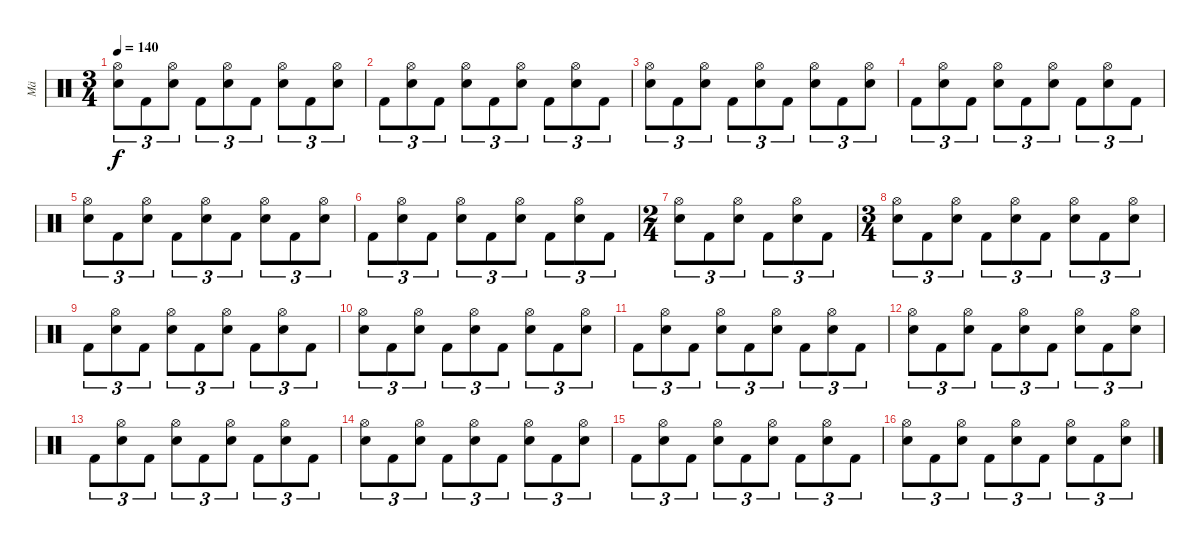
\track ("Mä" "Mä") {instrument percussion}
\staff {score}
\articulation defaults
\ts (3 4)
\tempo 140
\clef neutral
\ks c
("Hi-Hat (open)" "Snare (hit) 2").8{tu (3 2) dy f} "Kick (hit) 2".8{tu (3 2)} ("Hi-Hat (open)" "Snare (hit) 2").8{tu (3 2)} "Kick (hit) 2".8{tu (3 2)} ("Hi-Hat (open)" "Snare (hit) 2").8{tu (3 2)} "Kick (hit) 2".8{tu (3 2)} ("Hi-Hat (open)" "Snare (hit) 2").8{tu (3 2)} "Kick (hit) 2".8{tu (3 2)} ("Hi-Hat (open)" "Snare (hit) 2").8{tu (3 2)} |
"Kick (hit) 2".8{tu (3 2)} ("Hi-Hat (open)" "Snare (hit) 2").8{tu (3 2)} "Kick (hit) 2".8{tu (3 2)} ("Hi-Hat (open)" "Snare (hit) 2").8{tu (3 2)} "Kick (hit) 2".8{tu (3 2)} ("Hi-Hat (open)" "Snare (hit) 2").8{tu (3 2)} "Kick (hit) 2".8{tu (3 2)} ("Hi-Hat (open)" "Snare (hit) 2").8{tu (3 2)} "Kick (hit) 2".8{tu (3 2)} |
("Hi-Hat (open)" "Snare (hit) 2").8{tu (3 2)} "Kick (hit) 2".8{tu (3 2)} ("Hi-Hat (open)" "Snare (hit) 2").8{tu (3 2)} "Kick (hit) 2".8{tu (3 2)} ("Hi-Hat (open)" "Snare (hit) 2").8{tu (3 2)} "Kick (hit) 2".8{tu (3 2)} ("Hi-Hat (open)" "Snare (hit) 2").8{tu (3 2)} "Kick (hit) 2".8{tu (3 2)} ("Hi-Hat (open)" "Snare (hit) 2").8{tu (3 2)} |
"Kick (hit) 2".8{tu (3 2)} ("Hi-Hat (open)" "Snare (hit) 2").8{tu (3 2)} "Kick (hit) 2".8{tu (3 2)} ("Hi-Hat (open)" "Snare (hit) 2").8{tu (3 2)} "Kick (hit) 2".8{tu (3 2)} ("Hi-Hat (open)" "Snare (hit) 2").8{tu (3 2)} "Kick (hit) 2".8{tu (3 2)} ("Hi-Hat (open)" "Snare (hit) 2").8{tu (3 2)} "Kick (hit) 2".8{tu (3 2)} |
("Hi-Hat (open)" "Snare (hit) 2").8{tu (3 2)} "Kick (hit) 2".8{tu (3 2)} ("Hi-Hat (open)" "Snare (hit) 2").8{tu (3 2)} "Kick (hit) 2".8{tu (3 2)} ("Hi-Hat (open)" "Snare (hit) 2").8{tu (3 2)} "Kick (hit) 2".8{tu (3 2)} ("Hi-Hat (open)" "Snare (hit) 2").8{tu (3 2)} "Kick (hit) 2".8{tu (3 2)} ("Hi-Hat (open)" "Snare (hit) 2").8{tu (3 2)} |
"Kick (hit) 2".8{tu (3 2)} ("Hi-Hat (open)" "Snare (hit) 2").8{tu (3 2)} "Kick (hit) 2".8{tu (3 2)} ("Hi-Hat (open)" "Snare (hit) 2").8{tu (3 2)} "Kick (hit) 2".8{tu (3 2)} ("Hi-Hat (open)" "Snare (hit) 2").8{tu (3 2)} "Kick (hit) 2".8{tu (3 2)} ("Hi-Hat (open)" "Snare (hit) 2").8{tu (3 2)} "Kick (hit) 2".8{tu (3 2)} |
\ts (2 4)
("Hi-Hat (open)" "Snare (hit) 2").8{tu (3 2)} "Kick (hit) 2".8{tu (3 2)} ("Hi-Hat (open)" "Snare (hit) 2").8{tu (3 2)} "Kick (hit) 2".8{tu (3 2)} ("Hi-Hat (open)" "Snare (hit) 2").8{tu (3 2)} "Kick (hit) 2".8{tu (3 2)} |
\ts (3 4)
("Hi-Hat (open)" "Snare (hit) 2").8{tu (3 2)} "Kick (hit) 2".8{tu (3 2)} ("Hi-Hat (open)" "Snare (hit) 2").8{tu (3 2)} "Kick (hit) 2".8{tu (3 2)} ("Hi-Hat (open)" "Snare (hit) 2").8{tu (3 2)} "Kick (hit) 2".8{tu (3 2)} ("Hi-Hat (open)" "Snare (hit) 2").8{tu (3 2)} "Kick (hit) 2".8{tu (3 2)} ("Hi-Hat (open)" "Snare (hit) 2").8{tu (3 2)} |
"Kick (hit) 2".8{tu (3 2)} ("Hi-Hat (open)" "Snare (hit) 2").8{tu (3 2)} "Kick (hit) 2".8{tu (3 2)} ("Hi-Hat (open)" "Snare (hit) 2").8{tu (3 2)} "Kick (hit) 2".8{tu (3 2)} ("Hi-Hat (open)" "Snare (hit) 2").8{tu (3 2)} "Kick (hit) 2".8{tu (3 2)} ("Hi-Hat (open)" "Snare (hit) 2").8{tu (3 2)} "Kick (hit) 2".8{tu (3 2)} |
("Hi-Hat (open)" "Snare (hit) 2").8{tu (3 2)} "Kick (hit) 2".8{tu (3 2)} ("Hi-Hat (open)" "Snare (hit) 2").8{tu (3 2)} "Kick (hit) 2".8{tu (3 2)} ("Hi-Hat (open)" "Snare (hit) 2").8{tu (3 2)} "Kick (hit) 2".8{tu (3 2)} ("Hi-Hat (open)" "Snare (hit) 2").8{tu (3 2)} "Kick (hit) 2".8{tu (3 2)} ("Hi-Hat (open)" "Snare (hit) 2").8{tu (3 2)} |
"Kick (hit) 2".8{tu (3 2)} ("Hi-Hat (open)" "Snare (hit) 2").8{tu (3 2)} "Kick (hit) 2".8{tu (3 2)} ("Hi-Hat (open)" "Snare (hit) 2").8{tu (3 2)} "Kick (hit) 2".8{tu (3 2)} ("Hi-Hat (open)" "Snare (hit) 2").8{tu (3 2)} "Kick (hit) 2".8{tu (3 2)} ("Hi-Hat (open)" "Snare (hit) 2").8{tu (3 2)} "Kick (hit) 2".8{tu (3 2)} |
("Hi-Hat (open)" "Snare (hit) 2").8{tu (3 2)} "Kick (hit) 2".8{tu (3 2)} ("Hi-Hat (open)" "Snare (hit) 2").8{tu (3 2)} "Kick (hit) 2".8{tu (3 2)} ("Hi-Hat (open)" "Snare (hit) 2").8{tu (3 2)} "Kick (hit) 2".8{tu (3 2)} ("Hi-Hat (open)" "Snare (hit) 2").8{tu (3 2)} "Kick (hit) 2".8{tu (3 2)} ("Hi-Hat (open)" "Snare (hit) 2").8{tu (3 2)} |
"Kick (hit) 2".8{tu (3 2)} ("Hi-Hat (open)" "Snare (hit) 2").8{tu (3 2)} "Kick (hit) 2".8{tu (3 2)} ("Hi-Hat (open)" "Snare (hit) 2").8{tu (3 2)} "Kick (hit) 2".8{tu (3 2)} ("Hi-Hat (open)" "Snare (hit) 2").8{tu (3 2)} "Kick (hit) 2".8{tu (3 2)} ("Hi-Hat (open)" "Snare (hit) 2").8{tu (3 2)} "Kick (hit) 2".8{tu (3 2)} |
("Hi-Hat (open)" "Snare (hit) 2").8{tu (3 2)} "Kick (hit) 2".8{tu (3 2)} ("Hi-Hat (open)" "Snare (hit) 2").8{tu (3 2)} "Kick (hit) 2".8{tu (3 2)} ("Hi-Hat (open)" "Snare (hit) 2").8{tu (3 2)} "Kick (hit) 2".8{tu (3 2)} ("Hi-Hat (open)" "Snare (hit) 2").8{tu (3 2)} "Kick (hit) 2".8{tu (3 2)} ("Hi-Hat (open)" "Snare (hit) 2").8{tu (3 2)} |
"Kick (hit) 2".8{tu (3 2)} ("Hi-Hat (open)" "Snare (hit) 2").8{tu (3 2)} "Kick (hit) 2".8{tu (3 2)} ("Hi-Hat (open)" "Snare (hit) 2").8{tu (3 2)} "Kick (hit) 2".8{tu (3 2)} ("Hi-Hat (open)" "Snare (hit) 2").8{tu (3 2)} "Kick (hit) 2".8{tu (3 2)} ("Hi-Hat (open)" "Snare (hit) 2").8{tu (3 2)} "Kick (hit) 2".8{tu (3 2)} |
("Hi-Hat (open)" "Snare (hit) 2").8{tu (3 2)} "Kick (hit) 2".8{tu (3 2)} ("Hi-Hat (open)" "Snare (hit) 2").8{tu (3 2)} "Kick (hit) 2".8{tu (3 2)} ("Hi-Hat (open)" "Snare (hit) 2").8{tu (3 2)} "Kick (hit) 2".8{tu (3 2)} ("Hi-Hat (open)" "Snare (hit) 2").8{tu (3 2)} "Kick (hit) 2".8{tu (3 2)} ("Hi-Hat (open)" "Snare (hit) 2").8{tu (3 2)}
